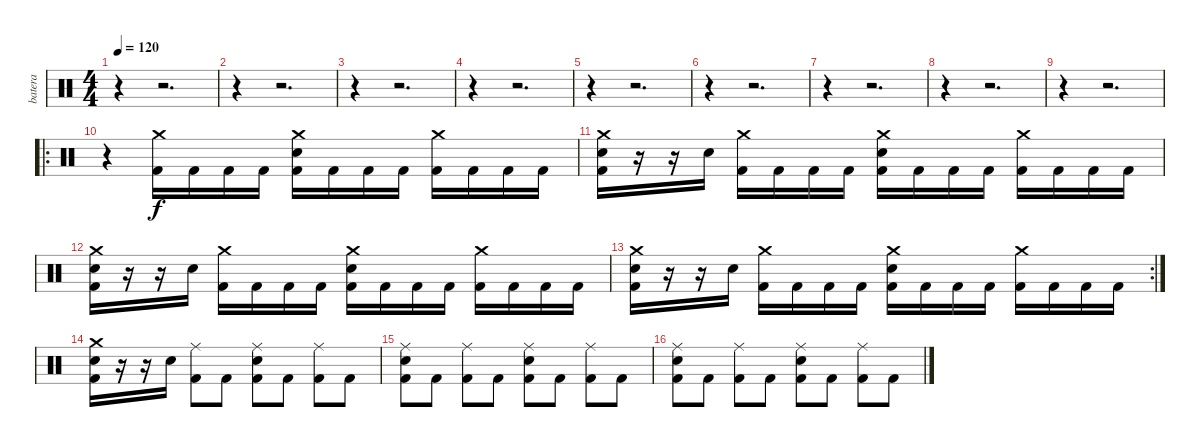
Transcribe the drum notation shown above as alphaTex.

\track ("batera" "batera") {instrument percussion}
\staff {score}
\articulation defaults
\ts (4 4)
\tempo 120
\clef neutral
\ks c
r.4{dy f} r.2{d} |
r.4 r.2{d} |
r.4 r.2{d} |
r.4 r.2{d} |
r.4 r.2{d} |
r.4 r.2{d} |
r.4 r.2{d} |
r.4 r.2{d} |
r.4 r.2{d} |
\ro
r.4 ("Crash medium (hit)" "Kick (hit) 2").16 "Kick (hit) 2".16 "Kick (hit) 2".16 "Kick (hit) 2".16 ("Crash medium (hit)" "Electric Snare (hit)" "Kick (hit) 2").16 "Kick (hit) 2".16 "Kick (hit) 2".16 "Kick (hit) 2".16 ("Crash medium (hit)" "Kick (hit) 2").16 "Kick (hit) 2".16 "Kick (hit) 2".16 "Kick (hit) 2".16 |
("Crash medium (hit)" "Electric Snare (hit)" "Kick (hit) 2").16 r.16 r.16 "Snare (hit)".16 ("Crash medium (hit)" "Kick (hit) 2").16 "Kick (hit) 2".16 "Kick (hit) 2".16 "Kick (hit) 2".16 ("Crash medium (hit)" "Electric Snare (hit)" "Kick (hit) 2").16 "Kick (hit) 2".16 "Kick (hit) 2".16 "Kick (hit) 2".16 ("Crash medium (hit)" "Kick (hit) 2").16 "Kick (hit) 2".16 "Kick (hit) 2".16 "Kick (hit) 2".16 |
("Crash medium (hit)" "Electric Snare (hit)" "Kick (hit) 2").16 r.16 r.16 "Snare (hit)".16 ("Crash medium (hit)" "Kick (hit) 2").16 "Kick (hit) 2".16 "Kick (hit) 2".16 "Kick (hit) 2".16 ("Crash medium (hit)" "Electric Snare (hit)" "Kick (hit) 2").16 "Kick (hit) 2".16 "Kick (hit) 2".16 "Kick (hit) 2".16 ("Crash medium (hit)" "Kick (hit) 2").16 "Kick (hit) 2".16 "Kick (hit) 2".16 "Kick (hit) 2".16 |
\rc 2
("Crash medium (hit)" "Electric Snare (hit)" "Kick (hit) 2").16 r.16 r.16 "Snare (hit)".16 ("Crash medium (hit)" "Kick (hit) 2").16 "Kick (hit) 2".16 "Kick (hit) 2".16 "Kick (hit) 2".16 ("Crash medium (hit)" "Electric Snare (hit)" "Kick (hit) 2").16 "Kick (hit) 2".16 "Kick (hit) 2".16 "Kick (hit) 2".16 ("Crash medium (hit)" "Kick (hit) 2").16 "Kick (hit) 2".16 "Kick (hit) 2".16 "Kick (hit) 2".16 |
("Crash medium (hit)" "Electric Snare (hit)" "Kick (hit) 2").16 r.16 r.16 "Snare (hit)".16 ("Ride (middle)" "Kick (hit) 2").8 "Kick (hit) 2".8 ("Ride (middle)" "Electric Snare (hit)" "Kick (hit) 2").8 "Kick (hit) 2".8 ("Ride (middle)" "Kick (hit) 2").8 "Kick (hit) 2".8 |
("Ride (middle)" "Electric Snare (hit)" "Kick (hit) 2").8 "Kick (hit) 2".8 ("Ride (middle)" "Kick (hit) 2").8 "Kick (hit) 2".8 ("Ride (middle)" "Electric Snare (hit)" "Kick (hit) 2").8 "Kick (hit) 2".8 ("Ride (middle)" "Kick (hit) 2").8 "Kick (hit) 2".8 |
("Ride (middle)" "Electric Snare (hit)" "Kick (hit) 2").8 "Kick (hit) 2".8 ("Ride (middle)" "Kick (hit) 2").8 "Kick (hit) 2".8 ("Ride (middle)" "Electric Snare (hit)" "Kick (hit) 2").8 "Kick (hit) 2".8 ("Ride (middle)" "Kick (hit) 2").8 "Kick (hit) 2".8
